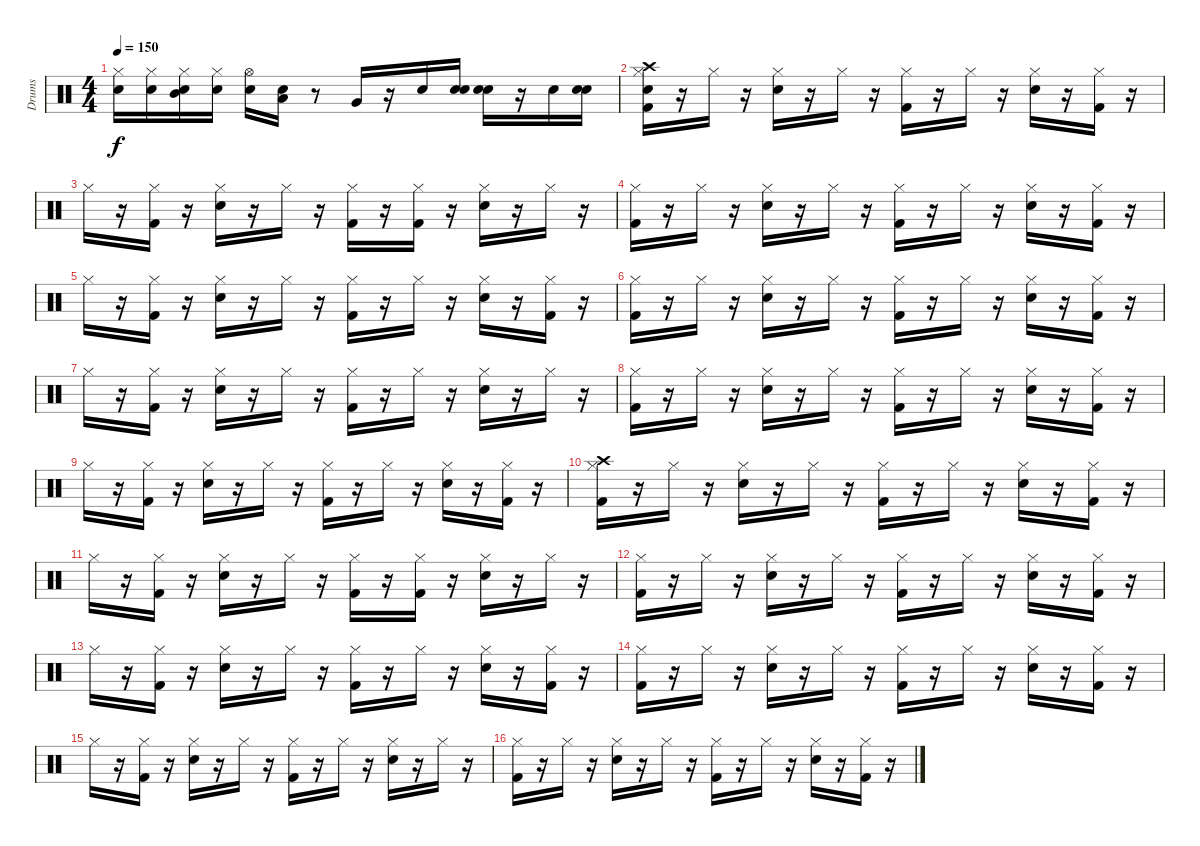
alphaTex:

\track ("Drums" "Drums") {instrument percussion}
\staff {score}
\articulation defaults
\ts (4 4)
\tempo 150
\clef neutral
\ks c
("Snare (hit)" "Hi-Hat (closed)").16{dy f} ("Snare (hit)" "Hi-Hat (closed)").16 ("Snare (hit)" "Hi-Hat (closed)" "Mid Tom (hit)").16 ("Snare (hit)" "Hi-Hat (closed)").16 ("Snare (hit)" "Hi-Hat (open)").16 ("Snare (hit)" "Low Tom (hit)").16 r.8 "Very Low Tom (hit)".16 r.16 "Snare (hit) 2".16 ("Snare (hit)" "Snare (hit) 2").16 ("Snare (hit)" "Snare (hit) 2").16 r.16 "Snare (hit) 2".16 ("Snare (hit)" "Snare (hit) 2").16 |
("Snare (hit)" "Crash high (hit)" "Kick (hit) 2" "Hi-Hat (closed)").16 r.16 "Hi-Hat (closed)".16 r.16 ("Snare (hit) 2" "Hi-Hat (closed)").16 r.16 "Hi-Hat (closed)".16 r.16 ("Kick (hit) 2" "Hi-Hat (closed)").16 r.16 "Hi-Hat (closed)".16 r.16 ("Snare (hit) 2" "Hi-Hat (closed)").16 r.16 ("Kick (hit) 2" "Hi-Hat (closed)").16 r.16 |
"Hi-Hat (closed)".16 r.16 ("Kick (hit) 2" "Hi-Hat (closed)").16 r.16 ("Snare (hit) 2" "Hi-Hat (closed)").16 r.16 "Hi-Hat (closed)".16 r.16 ("Kick (hit) 2" "Hi-Hat (closed)").16 r.16 ("Kick (hit) 2" "Hi-Hat (closed)").16 r.16 ("Snare (hit) 2" "Hi-Hat (closed)").16 r.16 "Hi-Hat (closed)".16 r.16 |
("Kick (hit) 2" "Hi-Hat (closed)").16 r.16 "Hi-Hat (closed)".16 r.16 ("Snare (hit) 2" "Hi-Hat (closed)").16 r.16 "Hi-Hat (closed)".16 r.16 ("Kick (hit) 2" "Hi-Hat (closed)").16 r.16 "Hi-Hat (closed)".16 r.16 ("Snare (hit) 2" "Hi-Hat (closed)").16 r.16 ("Kick (hit) 2" "Hi-Hat (closed)").16 r.16 |
"Hi-Hat (closed)".16 r.16 ("Kick (hit) 2" "Hi-Hat (closed)").16 r.16 ("Snare (hit) 2" "Hi-Hat (closed)").16 r.16 "Hi-Hat (closed)".16 r.16 ("Kick (hit) 2" "Hi-Hat (closed)").16 r.16 "Hi-Hat (closed)".16 r.16 ("Snare (hit) 2" "Hi-Hat (closed)").16 r.16 ("Kick (hit) 2" "Hi-Hat (closed)").16 r.16 |
("Kick (hit) 2" "Hi-Hat (closed)").16 r.16 "Hi-Hat (closed)".16 r.16 ("Snare (hit) 2" "Hi-Hat (closed)").16 r.16 "Hi-Hat (closed)".16 r.16 ("Kick (hit) 2" "Hi-Hat (closed)").16 r.16 "Hi-Hat (closed)".16 r.16 ("Snare (hit) 2" "Hi-Hat (closed)").16 r.16 ("Kick (hit) 2" "Hi-Hat (closed)").16 r.16 |
"Hi-Hat (closed)".16 r.16 ("Kick (hit) 2" "Hi-Hat (closed)").16 r.16 ("Snare (hit) 2" "Hi-Hat (closed)").16 r.16 "Hi-Hat (closed)".16 r.16 ("Kick (hit) 2" "Hi-Hat (closed)").16 r.16 "Hi-Hat (closed)".16 r.16 ("Snare (hit) 2" "Hi-Hat (closed)").16 r.16 "Hi-Hat (closed)".16 r.16 |
("Kick (hit) 2" "Hi-Hat (closed)").16 r.16 "Hi-Hat (closed)".16 r.16 ("Snare (hit) 2" "Hi-Hat (closed)").16 r.16 "Hi-Hat (closed)".16 r.16 ("Kick (hit) 2" "Hi-Hat (closed)").16 r.16 "Hi-Hat (closed)".16 r.16 ("Snare (hit) 2" "Hi-Hat (closed)").16 r.16 ("Kick (hit) 2" "Hi-Hat (closed)").16 r.16 |
"Hi-Hat (closed)".16 r.16 ("Kick (hit) 2" "Hi-Hat (closed)").16 r.16 ("Snare (hit) 2" "Hi-Hat (closed)").16 r.16 "Hi-Hat (closed)".16 r.16 ("Kick (hit) 2" "Hi-Hat (closed)").16 r.16 "Hi-Hat (closed)".16 r.16 ("Snare (hit) 2" "Hi-Hat (closed)").16 r.16 ("Kick (hit) 2" "Hi-Hat (closed)").16 r.16 |
("Crash high (hit)" "Kick (hit) 2" "Hi-Hat (closed)").16 r.16 "Hi-Hat (closed)".16 r.16 ("Snare (hit) 2" "Hi-Hat (closed)").16 r.16 "Hi-Hat (closed)".16 r.16 ("Kick (hit) 2" "Hi-Hat (closed)").16 r.16 "Hi-Hat (closed)".16 r.16 ("Snare (hit) 2" "Hi-Hat (closed)").16 r.16 ("Kick (hit) 2" "Hi-Hat (closed)").16 r.16 |
"Hi-Hat (closed)".16 r.16 ("Kick (hit) 2" "Hi-Hat (closed)").16 r.16 ("Snare (hit) 2" "Hi-Hat (closed)").16 r.16 "Hi-Hat (closed)".16 r.16 ("Kick (hit) 2" "Hi-Hat (closed)").16 r.16 ("Kick (hit) 2" "Hi-Hat (closed)").16 r.16 ("Snare (hit) 2" "Hi-Hat (closed)").16 r.16 "Hi-Hat (closed)".16 r.16 |
("Kick (hit) 2" "Hi-Hat (closed)").16 r.16 "Hi-Hat (closed)".16 r.16 ("Snare (hit) 2" "Hi-Hat (closed)").16 r.16 "Hi-Hat (closed)".16 r.16 ("Kick (hit) 2" "Hi-Hat (closed)").16 r.16 "Hi-Hat (closed)".16 r.16 ("Snare (hit) 2" "Hi-Hat (closed)").16 r.16 ("Kick (hit) 2" "Hi-Hat (closed)").16 r.16 |
"Hi-Hat (closed)".16 r.16 ("Kick (hit) 2" "Hi-Hat (closed)").16 r.16 ("Snare (hit) 2" "Hi-Hat (closed)").16 r.16 "Hi-Hat (closed)".16 r.16 ("Kick (hit) 2" "Hi-Hat (closed)").16 r.16 "Hi-Hat (closed)".16 r.16 ("Snare (hit) 2" "Hi-Hat (closed)").16 r.16 ("Kick (hit) 2" "Hi-Hat (closed)").16 r.16 |
("Kick (hit) 2" "Hi-Hat (closed)").16 r.16 "Hi-Hat (closed)".16 r.16 ("Snare (hit) 2" "Hi-Hat (closed)").16 r.16 "Hi-Hat (closed)".16 r.16 ("Kick (hit) 2" "Hi-Hat (closed)").16 r.16 "Hi-Hat (closed)".16 r.16 ("Snare (hit) 2" "Hi-Hat (closed)").16 r.16 ("Kick (hit) 2" "Hi-Hat (closed)").16 r.16 |
"Hi-Hat (closed)".16 r.16 ("Kick (hit) 2" "Hi-Hat (closed)").16 r.16 ("Snare (hit) 2" "Hi-Hat (closed)").16 r.16 "Hi-Hat (closed)".16 r.16 ("Kick (hit) 2" "Hi-Hat (closed)").16 r.16 "Hi-Hat (closed)".16 r.16 ("Snare (hit) 2" "Hi-Hat (closed)").16 r.16 "Hi-Hat (closed)".16 r.16 |
("Kick (hit) 2" "Hi-Hat (closed)").16 r.16 "Hi-Hat (closed)".16 r.16 ("Snare (hit) 2" "Hi-Hat (closed)").16 r.16 "Hi-Hat (closed)".16 r.16 ("Kick (hit) 2" "Hi-Hat (closed)").16 r.16 "Hi-Hat (closed)".16 r.16 ("Snare (hit) 2" "Hi-Hat (closed)").16 r.16 ("Kick (hit) 2" "Hi-Hat (closed)").16 r.16
